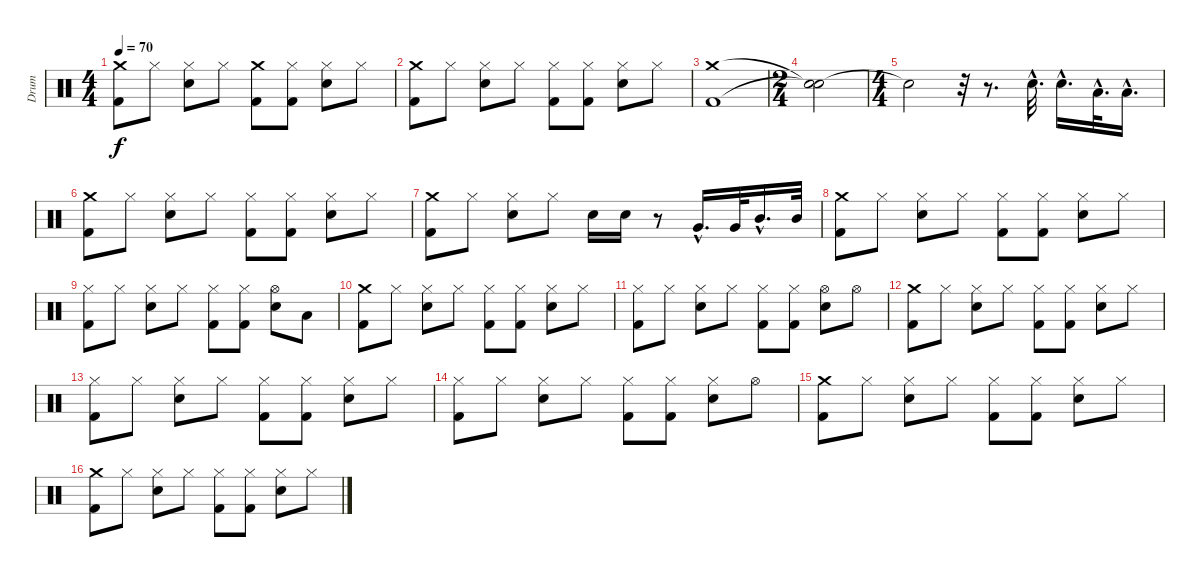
\track ("Drum" "Drum") {instrument percussion}
\staff {score}
\articulation defaults
\ts (4 4)
\tempo 70
\clef neutral
\ks c
("Crash medium (hit)" "Kick (hit) 2").8{dy f} "Hi-Hat (closed)".8 ("Hi-Hat (closed)" "Snare (hit) 2").8 "Hi-Hat (closed)".8 ("Crash medium (hit)" "Kick (hit) 2").8 ("Hi-Hat (closed)" "Kick (hit) 2").8 ("Hi-Hat (closed)" "Snare (hit) 2").8 "Hi-Hat (closed)".8 |
("Crash medium (hit)" "Kick (hit) 2").8 "Hi-Hat (closed)".8 ("Hi-Hat (closed)" "Snare (hit) 2").8 "Hi-Hat (closed)".8 ("Hi-Hat (closed)" "Kick (hit) 2").8 ("Hi-Hat (closed)" "Kick (hit) 2").8 ("Hi-Hat (closed)" "Snare (hit) 2").8 "Hi-Hat (closed)".8 |
("Crash medium (hit)" "Kick (hit) 2").1 |
\ts (2 4)
("Snare (hit)"{t} "Snare (hit)"{t}).2 |
\ts (4 4)
"Snare (hit)"{t}.2 r.32 r.8{d} "Snare (hit) 2"{hac}.32{d} "Snare (hit) 2"{hac}.16{d} "Low Tom (hit)"{hac}.32{d} "Low Tom (hit)"{hac}.16{d} |
("Crash medium (hit)" "Kick (hit) 2").8 "Hi-Hat (closed)".8 ("Hi-Hat (closed)" "Snare (hit) 2").8 "Hi-Hat (closed)".8 ("Hi-Hat (closed)" "Kick (hit) 2").8 ("Hi-Hat (closed)" "Kick (hit) 2").8 ("Hi-Hat (closed)" "Snare (hit) 2").8 "Hi-Hat (closed)".8 |
("Crash medium (hit)" "Kick (hit) 2").8 "Hi-Hat (closed)".8 ("Hi-Hat (closed)" "Snare (hit) 2").8 "Hi-Hat (closed)".8 "Snare (hit) 2".16 "Snare (hit) 2".16 r.8 "Very Low Tom (hit)"{hac}.16{d} "Very Low Tom (hit)".32 "Mid Tom (hit)"{hac}.16{d} "Mid Tom (hit)".32 |
("Crash medium (hit)" "Kick (hit) 2").8 "Hi-Hat (closed)".8 ("Hi-Hat (closed)" "Snare (hit) 2").8 "Hi-Hat (closed)".8 ("Hi-Hat (closed)" "Kick (hit) 2").8 ("Hi-Hat (closed)" "Kick (hit) 2").8 ("Hi-Hat (closed)" "Snare (hit) 2").8 "Hi-Hat (closed)".8 |
("Hi-Hat (closed)" "Kick (hit) 2").8 "Hi-Hat (closed)".8 ("Hi-Hat (closed)" "Snare (hit) 2").8 "Hi-Hat (closed)".8 ("Hi-Hat (closed)" "Kick (hit) 2").8 ("Hi-Hat (closed)" "Kick (hit) 2").8 ("Hi-Hat (open)" "Snare (hit) 2").8 "Low Floor Tom (hit)".8 |
("Crash medium (hit)" "Kick (hit) 2").8 "Hi-Hat (closed)".8 ("Hi-Hat (closed)" "Snare (hit) 2").8 "Hi-Hat (closed)".8 ("Hi-Hat (closed)" "Kick (hit) 2").8 ("Hi-Hat (closed)" "Kick (hit) 2").8 ("Hi-Hat (closed)" "Snare (hit) 2").8 "Hi-Hat (closed)".8 |
("Hi-Hat (closed)" "Kick (hit) 2").8 "Hi-Hat (closed)".8 ("Hi-Hat (closed)" "Snare (hit) 2").8 "Hi-Hat (closed)".8 ("Hi-Hat (closed)" "Kick (hit) 2").8 ("Hi-Hat (closed)" "Kick (hit) 2").8 ("Hi-Hat (open)" "Snare (hit) 2").8 "Hi-Hat (open)".8 |
("Crash medium (hit)" "Kick (hit) 2").8 "Hi-Hat (closed)".8 ("Hi-Hat (closed)" "Snare (hit) 2").8 "Hi-Hat (closed)".8 ("Hi-Hat (closed)" "Kick (hit) 2").8 ("Hi-Hat (closed)" "Kick (hit) 2").8 ("Hi-Hat (closed)" "Snare (hit) 2").8 "Hi-Hat (closed)".8 |
("Hi-Hat (closed)" "Kick (hit) 2").8 "Hi-Hat (closed)".8 ("Hi-Hat (closed)" "Snare (hit) 2").8 "Hi-Hat (closed)".8 ("Hi-Hat (closed)" "Kick (hit) 2").8 ("Hi-Hat (closed)" "Kick (hit) 2").8 ("Hi-Hat (closed)" "Snare (hit) 2").8 "Hi-Hat (closed)".8 |
("Hi-Hat (closed)" "Kick (hit) 2").8 "Hi-Hat (closed)".8 ("Hi-Hat (closed)" "Snare (hit) 2").8 "Hi-Hat (closed)".8 ("Hi-Hat (closed)" "Kick (hit) 2").8 ("Hi-Hat (closed)" "Kick (hit) 2").8 ("Hi-Hat (closed)" "Snare (hit) 2").8 "Hi-Hat (open)".8 |
("Crash medium (hit)" "Kick (hit) 2").8 "Hi-Hat (closed)".8 ("Hi-Hat (closed)" "Snare (hit) 2").8 "Hi-Hat (closed)".8 ("Hi-Hat (closed)" "Kick (hit) 2").8 ("Hi-Hat (closed)" "Kick (hit) 2").8 ("Hi-Hat (closed)" "Snare (hit) 2").8 "Hi-Hat (closed)".8 |
("Crash medium (hit)" "Kick (hit) 2").8 "Hi-Hat (closed)".8 ("Hi-Hat (closed)" "Snare (hit) 2").8 "Hi-Hat (closed)".8 ("Hi-Hat (closed)" "Kick (hit) 2").8 ("Hi-Hat (closed)" "Kick (hit) 2").8 ("Hi-Hat (closed)" "Snare (hit) 2").8 "Hi-Hat (closed)".8
